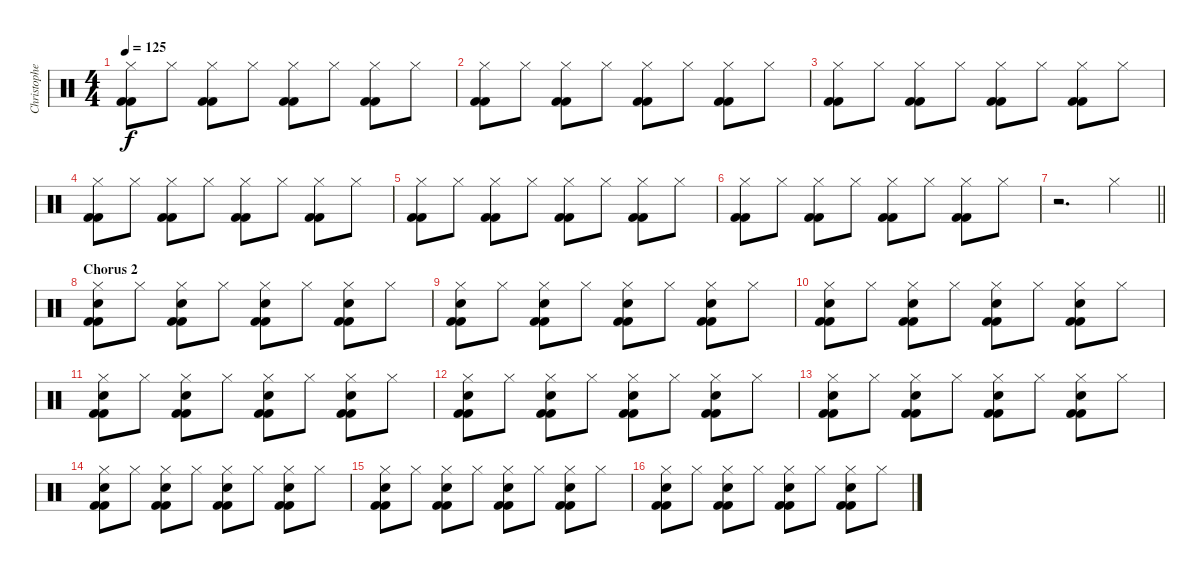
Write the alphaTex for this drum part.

\track ("Christopher S. (Drums)" "Christophe") {instrument percussion}
\staff {score}
\articulation defaults
\ts (4 4)
\tempo 125
\clef neutral
\ks c
("Hi-Hat (closed)" "Kick (hit) 2" "Kick (hit) 2").8{dy f} "Hi-Hat (closed)".8 ("Hi-Hat (closed)" "Kick (hit) 2" "Kick (hit) 2").8 "Hi-Hat (closed)".8 ("Hi-Hat (closed)" "Kick (hit) 2" "Kick (hit) 2").8 "Hi-Hat (closed)".8 ("Hi-Hat (closed)" "Kick (hit) 2" "Kick (hit) 2").8 "Hi-Hat (closed)".8 |
("Hi-Hat (closed)" "Kick (hit) 2" "Kick (hit) 2").8 "Hi-Hat (closed)".8 ("Hi-Hat (closed)" "Kick (hit) 2" "Kick (hit) 2").8 "Hi-Hat (closed)".8 ("Hi-Hat (closed)" "Kick (hit) 2" "Kick (hit) 2").8 "Hi-Hat (closed)".8 ("Hi-Hat (closed)" "Kick (hit) 2" "Kick (hit) 2").8 "Hi-Hat (closed)".8 |
("Hi-Hat (closed)" "Kick (hit) 2" "Kick (hit) 2").8 "Hi-Hat (closed)".8 ("Hi-Hat (closed)" "Kick (hit) 2" "Kick (hit) 2").8 "Hi-Hat (closed)".8 ("Hi-Hat (closed)" "Kick (hit) 2" "Kick (hit) 2").8 "Hi-Hat (closed)".8 ("Hi-Hat (closed)" "Kick (hit) 2" "Kick (hit) 2").8 "Hi-Hat (closed)".8 |
("Hi-Hat (closed)" "Kick (hit) 2" "Kick (hit) 2").8 "Hi-Hat (closed)".8 ("Hi-Hat (closed)" "Kick (hit) 2" "Kick (hit) 2").8 "Hi-Hat (closed)".8 ("Hi-Hat (closed)" "Kick (hit) 2" "Kick (hit) 2").8 "Hi-Hat (closed)".8 ("Hi-Hat (closed)" "Kick (hit) 2" "Kick (hit) 2").8 "Hi-Hat (closed)".8 |
("Hi-Hat (closed)" "Kick (hit) 2" "Kick (hit) 2").8 "Hi-Hat (closed)".8 ("Hi-Hat (closed)" "Kick (hit) 2" "Kick (hit) 2").8 "Hi-Hat (closed)".8 ("Hi-Hat (closed)" "Kick (hit) 2" "Kick (hit) 2").8 "Hi-Hat (closed)".8 ("Hi-Hat (closed)" "Kick (hit) 2" "Kick (hit) 2").8 "Hi-Hat (closed)".8 |
("Hi-Hat (closed)" "Kick (hit) 2" "Kick (hit) 2").8 "Hi-Hat (closed)".8 ("Hi-Hat (closed)" "Kick (hit) 2" "Kick (hit) 2").8 "Hi-Hat (closed)".8 ("Hi-Hat (closed)" "Kick (hit) 2" "Kick (hit) 2").8 "Hi-Hat (closed)".8 ("Hi-Hat (closed)" "Kick (hit) 2" "Kick (hit) 2").8 "Hi-Hat (closed)".8 |
\barLineRight lightlight
r.2{d} "Hi-Hat (closed)".4 |
\section ("" "Chorus 2")
("Hi-Hat (closed)" "Kick (hit) 2" "Kick (hit) 2" "Electric Snare (hit)").8 "Hi-Hat (closed)".8 ("Hi-Hat (closed)" "Kick (hit) 2" "Kick (hit) 2" "Electric Snare (hit)").8 "Hi-Hat (closed)".8 ("Hi-Hat (closed)" "Kick (hit) 2" "Kick (hit) 2" "Electric Snare (hit)").8 "Hi-Hat (closed)".8 ("Hi-Hat (closed)" "Kick (hit) 2" "Kick (hit) 2" "Electric Snare (hit)").8 "Hi-Hat (closed)".8 |
("Hi-Hat (closed)" "Kick (hit) 2" "Kick (hit) 2" "Electric Snare (hit)").8 "Hi-Hat (closed)".8 ("Hi-Hat (closed)" "Kick (hit) 2" "Kick (hit) 2" "Electric Snare (hit)").8 "Hi-Hat (closed)".8 ("Hi-Hat (closed)" "Kick (hit) 2" "Kick (hit) 2" "Electric Snare (hit)").8 "Hi-Hat (closed)".8 ("Hi-Hat (closed)" "Kick (hit) 2" "Kick (hit) 2" "Electric Snare (hit)").8 "Hi-Hat (closed)".8 |
("Hi-Hat (closed)" "Kick (hit) 2" "Kick (hit) 2" "Electric Snare (hit)").8 "Hi-Hat (closed)".8 ("Hi-Hat (closed)" "Kick (hit) 2" "Kick (hit) 2" "Electric Snare (hit)").8 "Hi-Hat (closed)".8 ("Hi-Hat (closed)" "Kick (hit) 2" "Kick (hit) 2" "Electric Snare (hit)").8 "Hi-Hat (closed)".8 ("Hi-Hat (closed)" "Kick (hit) 2" "Kick (hit) 2" "Electric Snare (hit)").8 "Hi-Hat (closed)".8 |
("Hi-Hat (closed)" "Kick (hit) 2" "Kick (hit) 2" "Electric Snare (hit)").8 "Hi-Hat (closed)".8 ("Hi-Hat (closed)" "Kick (hit) 2" "Kick (hit) 2" "Electric Snare (hit)").8 "Hi-Hat (closed)".8 ("Hi-Hat (closed)" "Kick (hit) 2" "Kick (hit) 2" "Electric Snare (hit)").8 "Hi-Hat (closed)".8 ("Hi-Hat (closed)" "Kick (hit) 2" "Kick (hit) 2" "Electric Snare (hit)").8 "Hi-Hat (closed)".8 |
("Hi-Hat (closed)" "Kick (hit) 2" "Kick (hit) 2" "Electric Snare (hit)").8 "Hi-Hat (closed)".8 ("Hi-Hat (closed)" "Kick (hit) 2" "Kick (hit) 2" "Electric Snare (hit)").8 "Hi-Hat (closed)".8 ("Hi-Hat (closed)" "Kick (hit) 2" "Kick (hit) 2" "Electric Snare (hit)").8 "Hi-Hat (closed)".8 ("Hi-Hat (closed)" "Kick (hit) 2" "Kick (hit) 2" "Electric Snare (hit)").8 "Hi-Hat (closed)".8 |
("Hi-Hat (closed)" "Kick (hit) 2" "Kick (hit) 2" "Electric Snare (hit)").8 "Hi-Hat (closed)".8 ("Hi-Hat (closed)" "Kick (hit) 2" "Kick (hit) 2" "Electric Snare (hit)").8 "Hi-Hat (closed)".8 ("Hi-Hat (closed)" "Kick (hit) 2" "Kick (hit) 2" "Electric Snare (hit)").8 "Hi-Hat (closed)".8 ("Hi-Hat (closed)" "Kick (hit) 2" "Kick (hit) 2" "Electric Snare (hit)").8 "Hi-Hat (closed)".8 |
("Hi-Hat (closed)" "Kick (hit) 2" "Kick (hit) 2" "Electric Snare (hit)").8 "Hi-Hat (closed)".8 ("Hi-Hat (closed)" "Kick (hit) 2" "Kick (hit) 2" "Electric Snare (hit)").8 "Hi-Hat (closed)".8 ("Hi-Hat (closed)" "Kick (hit) 2" "Kick (hit) 2" "Electric Snare (hit)").8 "Hi-Hat (closed)".8 ("Hi-Hat (closed)" "Kick (hit) 2" "Kick (hit) 2" "Electric Snare (hit)").8 "Hi-Hat (closed)".8 |
("Hi-Hat (closed)" "Kick (hit) 2" "Kick (hit) 2" "Electric Snare (hit)").8 "Hi-Hat (closed)".8 ("Hi-Hat (closed)" "Kick (hit) 2" "Kick (hit) 2" "Electric Snare (hit)").8 "Hi-Hat (closed)".8 ("Hi-Hat (closed)" "Kick (hit) 2" "Kick (hit) 2" "Electric Snare (hit)").8 "Hi-Hat (closed)".8 ("Hi-Hat (closed)" "Kick (hit) 2" "Kick (hit) 2" "Electric Snare (hit)").8 "Hi-Hat (closed)".8 |
("Hi-Hat (closed)" "Kick (hit) 2" "Kick (hit) 2" "Electric Snare (hit)").8 "Hi-Hat (closed)".8 ("Hi-Hat (closed)" "Kick (hit) 2" "Kick (hit) 2" "Electric Snare (hit)").8 "Hi-Hat (closed)".8 ("Hi-Hat (closed)" "Kick (hit) 2" "Kick (hit) 2" "Electric Snare (hit)").8 "Hi-Hat (closed)".8 ("Hi-Hat (closed)" "Kick (hit) 2" "Kick (hit) 2" "Electric Snare (hit)").8 "Hi-Hat (closed)".8
